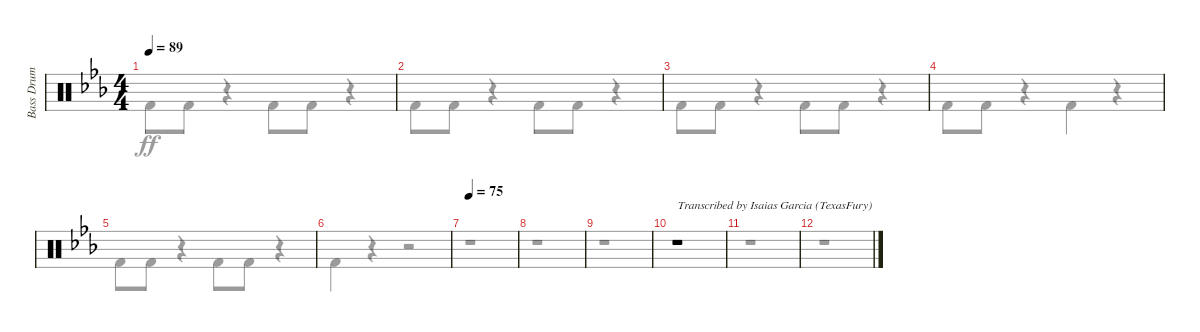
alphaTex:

\track ("Bass Drum" "Bass Drum") {instrument percussion}
\staff {score}
\articulation defaults
\voice
\ts (4 4)
\tempo 89
\clef neutral
\ks eb
|
|
|
|
|
|
\tempo 75
|
|
|
r.1{txt "Transcribed by Isaias Garcia (TexasFury)"} |
|
\voice
\clef neutral
\ottava regular
\simile none
\ks eb "Kick (hit) 2".8{dy ff} "Kick (hit) 2".8
r.4 "Kick (hit) 2".8 "Kick (hit) 2".8 r.4 |
"Kick (hit) 2".8 "Kick (hit) 2".8 r.4 "Kick (hit) 2".8 "Kick (hit) 2".8 r.4 |
"Kick (hit) 2".8 "Kick (hit) 2".8 r.4 "Kick (hit) 2".8 "Kick (hit) 2".8 r.4 |
"Kick (hit) 2".8 "Kick (hit) 2".8 r.4 "Kick (hit) 2".4 r.4 |
"Kick (hit) 2".8 "Kick (hit) 2".8 r.4 "Kick (hit) 2".8 "Kick (hit) 2".8 r.4 |
"Kick (hit) 2".4 r.4 r.2 |
r.1 |
r.1 |
r.1 |
r.1 |
r.1 |
r.1
